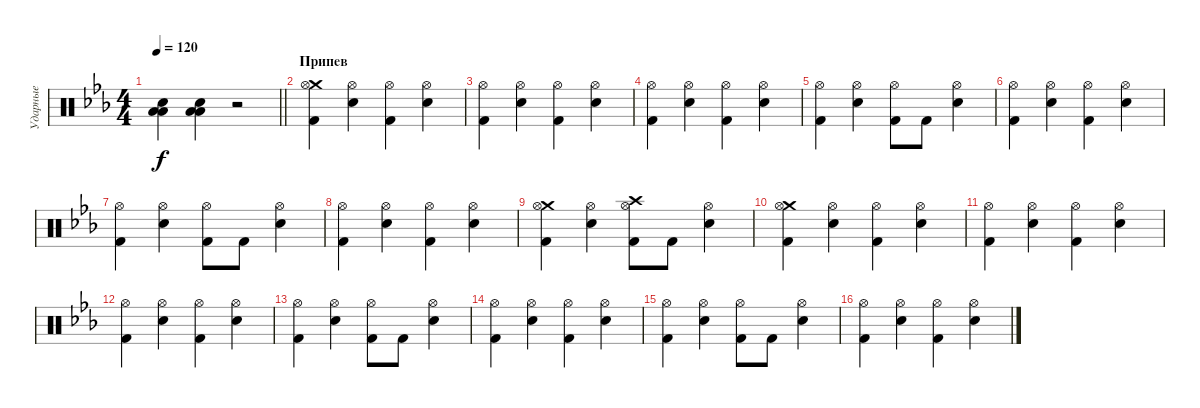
\track ("Ударные" "Ударные") {instrument percussion}
\staff {score}
\articulation defaults
\ts (4 4)
\tempo 120
\clef neutral
\barLineRight lightlight
\ks cminor
("Low Tom (hit)" "Low Floor Tom (hit)" "Electric Snare (hit)").4{dy f} ("Low Tom (hit)" "Low Floor Tom (hit)" "Electric Snare (hit)").4 r.2 |
\section ("" "Припев")
("Crash medium (hit)" "Kick (hit) 2" "Hi-Hat (open)").4 ("Electric Snare (hit)" "Hi-Hat (open)").4 ("Kick (hit) 2" "Hi-Hat (open)").4 ("Electric Snare (hit)" "Hi-Hat (open)").4 |
("Kick (hit) 2" "Hi-Hat (open)").4 ("Electric Snare (hit)" "Hi-Hat (open)").4 ("Kick (hit) 2" "Hi-Hat (open)").4 ("Electric Snare (hit)" "Hi-Hat (open)").4 |
("Kick (hit) 2" "Hi-Hat (open)").4 ("Electric Snare (hit)" "Hi-Hat (open)").4 ("Kick (hit) 2" "Hi-Hat (open)").4 ("Electric Snare (hit)" "Hi-Hat (open)").4 |
("Kick (hit) 2" "Hi-Hat (open)").4 ("Electric Snare (hit)" "Hi-Hat (open)").4 ("Kick (hit) 2" "Hi-Hat (open)").8 "Kick (hit) 2".8 ("Electric Snare (hit)" "Hi-Hat (open)").4 |
("Kick (hit) 2" "Hi-Hat (open)").4 ("Electric Snare (hit)" "Hi-Hat (open)").4 ("Kick (hit) 2" "Hi-Hat (open)").4 ("Electric Snare (hit)" "Hi-Hat (open)").4 |
("Kick (hit) 2" "Hi-Hat (open)").4 ("Electric Snare (hit)" "Hi-Hat (open)").4 ("Kick (hit) 2" "Hi-Hat (open)").8 "Kick (hit) 2".8 ("Electric Snare (hit)" "Hi-Hat (open)").4 |
("Kick (hit) 2" "Hi-Hat (open)").4 ("Electric Snare (hit)" "Hi-Hat (open)").4 ("Kick (hit) 2" "Hi-Hat (open)").4 ("Electric Snare (hit)" "Hi-Hat (open)").4 |
("Crash medium (hit)" "Kick (hit) 2" "Hi-Hat (open)").4 ("Electric Snare (hit)" "Hi-Hat (open)").4 ("Crash high (hit)" "Kick (hit) 2" "Hi-Hat (open)").8 "Kick (hit) 2".8 ("Electric Snare (hit)" "Hi-Hat (open)").4 |
("Crash medium (hit)" "Kick (hit) 2" "Hi-Hat (open)").4 ("Electric Snare (hit)" "Hi-Hat (open)").4 ("Kick (hit) 2" "Hi-Hat (open)").4 ("Electric Snare (hit)" "Hi-Hat (open)").4 |
("Kick (hit) 2" "Hi-Hat (open)").4 ("Electric Snare (hit)" "Hi-Hat (open)").4 ("Kick (hit) 2" "Hi-Hat (open)").4 ("Electric Snare (hit)" "Hi-Hat (open)").4 |
("Kick (hit) 2" "Hi-Hat (open)").4 ("Electric Snare (hit)" "Hi-Hat (open)").4 ("Kick (hit) 2" "Hi-Hat (open)").4 ("Electric Snare (hit)" "Hi-Hat (open)").4 |
("Kick (hit) 2" "Hi-Hat (open)").4 ("Electric Snare (hit)" "Hi-Hat (open)").4 ("Kick (hit) 2" "Hi-Hat (open)").8 "Kick (hit) 2".8 ("Electric Snare (hit)" "Hi-Hat (open)").4 |
("Kick (hit) 2" "Hi-Hat (open)").4 ("Electric Snare (hit)" "Hi-Hat (open)").4 ("Kick (hit) 2" "Hi-Hat (open)").4 ("Electric Snare (hit)" "Hi-Hat (open)").4 |
("Kick (hit) 2" "Hi-Hat (open)").4 ("Electric Snare (hit)" "Hi-Hat (open)").4 ("Kick (hit) 2" "Hi-Hat (open)").8 "Kick (hit) 2".8 ("Electric Snare (hit)" "Hi-Hat (open)").4 |
("Kick (hit) 2" "Hi-Hat (open)").4 ("Electric Snare (hit)" "Hi-Hat (open)").4 ("Kick (hit) 2" "Hi-Hat (open)").4 ("Electric Snare (hit)" "Hi-Hat (open)").4
